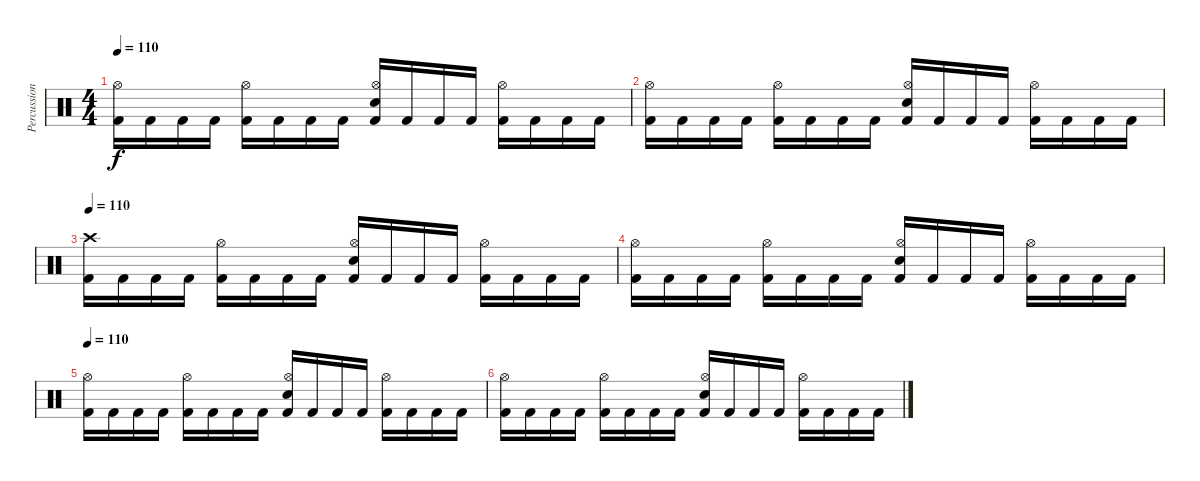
\track ("Percussions" "Percussion") {instrument percussion}
\staff {score}
\articulation defaults
\ts (4 4)
\tempo 110
\clef neutral
\ks c
("Kick (hit) 2" "Hi-Hat (open)").16{dy f} "Kick (hit) 2".16 "Kick (hit) 2".16 "Kick (hit) 2".16 ("Kick (hit) 2" "Hi-Hat (open)").16 "Kick (hit) 2".16 "Kick (hit) 2".16 "Kick (hit) 2".16 ("Kick (hit) 2" "Electric Snare (hit)" "Hi-Hat (open)").16 "Kick (hit) 2".16 "Kick (hit) 2".16 "Kick (hit) 2".16 ("Kick (hit) 2" "Hi-Hat (open)").16 "Kick (hit) 2".16 "Kick (hit) 2".16 "Kick (hit) 2".16 |
("Kick (hit) 2" "Hi-Hat (open)").16 "Kick (hit) 2".16 "Kick (hit) 2".16 "Kick (hit) 2".16 ("Kick (hit) 2" "Hi-Hat (open)").16 "Kick (hit) 2".16 "Kick (hit) 2".16 "Kick (hit) 2".16 ("Kick (hit) 2" "Electric Snare (hit)" "Hi-Hat (open)").16 "Kick (hit) 2".16 "Kick (hit) 2".16 "Kick (hit) 2".16 ("Kick (hit) 2" "Hi-Hat (open)").16 "Kick (hit) 2".16 "Kick (hit) 2".16 "Kick (hit) 2".16 |
\tempo 110
("Kick (hit) 2" "Crash high (hit)").16 "Kick (hit) 2".16 "Kick (hit) 2".16 "Kick (hit) 2".16 ("Kick (hit) 2" "Hi-Hat (open)").16 "Kick (hit) 2".16 "Kick (hit) 2".16 "Kick (hit) 2".16 ("Kick (hit) 2" "Electric Snare (hit)" "Hi-Hat (open)").16 "Kick (hit) 2".16 "Kick (hit) 2".16 "Kick (hit) 2".16 ("Kick (hit) 2" "Hi-Hat (open)").16 "Kick (hit) 2".16 "Kick (hit) 2".16 "Kick (hit) 2".16 |
("Kick (hit) 2" "Hi-Hat (open)").16 "Kick (hit) 2".16 "Kick (hit) 2".16 "Kick (hit) 2".16 ("Kick (hit) 2" "Hi-Hat (open)").16 "Kick (hit) 2".16 "Kick (hit) 2".16 "Kick (hit) 2".16 ("Kick (hit) 2" "Electric Snare (hit)" "Hi-Hat (open)").16 "Kick (hit) 2".16 "Kick (hit) 2".16 "Kick (hit) 2".16 ("Kick (hit) 2" "Hi-Hat (open)").16 "Kick (hit) 2".16 "Kick (hit) 2".16 "Kick (hit) 2".16 |
\tempo 110
("Kick (hit) 2" "Hi-Hat (open)").16 "Kick (hit) 2".16 "Kick (hit) 2".16 "Kick (hit) 2".16 ("Kick (hit) 2" "Hi-Hat (open)").16 "Kick (hit) 2".16 "Kick (hit) 2".16 "Kick (hit) 2".16 ("Kick (hit) 2" "Electric Snare (hit)" "Hi-Hat (open)").16 "Kick (hit) 2".16 "Kick (hit) 2".16 "Kick (hit) 2".16 ("Kick (hit) 2" "Hi-Hat (open)").16 "Kick (hit) 2".16 "Kick (hit) 2".16 "Kick (hit) 2".16 |
("Kick (hit) 2" "Hi-Hat (open)").16 "Kick (hit) 2".16 "Kick (hit) 2".16 "Kick (hit) 2".16 ("Kick (hit) 2" "Hi-Hat (open)").16 "Kick (hit) 2".16 "Kick (hit) 2".16 "Kick (hit) 2".16 ("Kick (hit) 2" "Electric Snare (hit)" "Hi-Hat (open)").16 "Kick (hit) 2".16 "Kick (hit) 2".16 "Kick (hit) 2".16 ("Kick (hit) 2" "Hi-Hat (open)").16 "Kick (hit) 2".16 "Kick (hit) 2".16 "Kick (hit) 2".16
